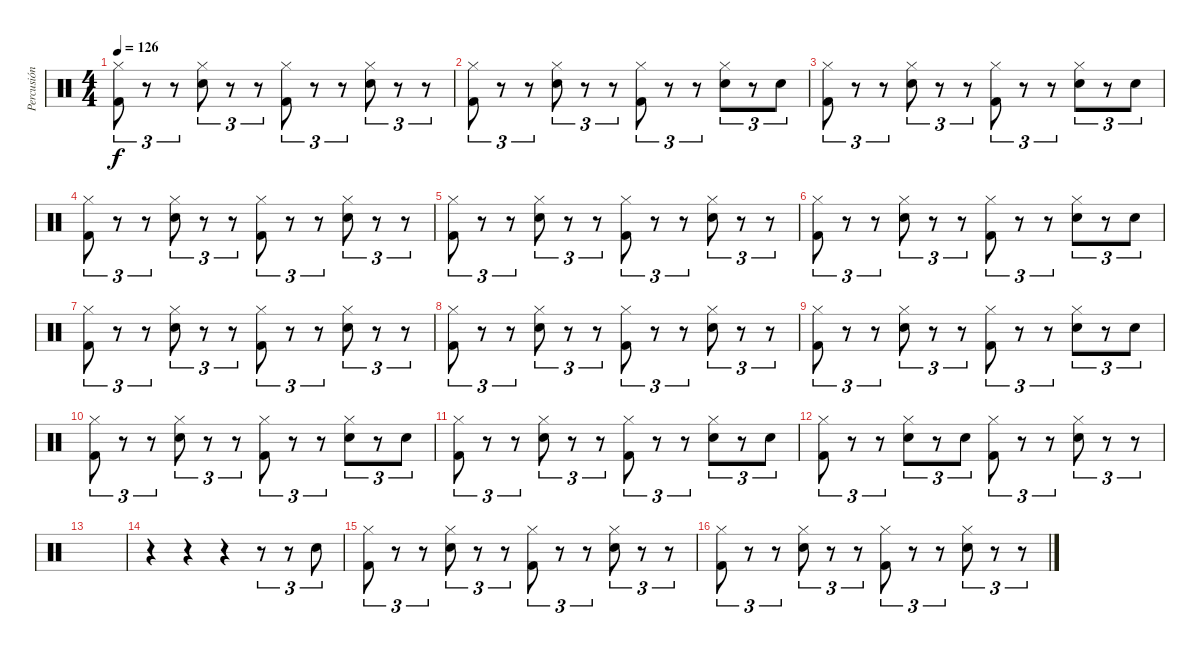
\track ("Percusión" "Percusión") {instrument percussion}
\staff {score}
\articulation defaults
\ts (4 4)
\tempo 126
\clef neutral
\ks c
("Hi-Hat (closed)" "Kick (hit) 2").8{tu (3 2) dy f} r.8{tu (3 2)} r.8{tu (3 2)} ("Hi-Hat (closed)" "Electric Snare (hit)").8{tu (3 2)} r.8{tu (3 2)} r.8{tu (3 2)} ("Hi-Hat (closed)" "Kick (hit) 2").8{tu (3 2)} r.8{tu (3 2)} r.8{tu (3 2)} ("Hi-Hat (closed)" "Electric Snare (hit)").8{tu (3 2)} r.8{tu (3 2)} r.8{tu (3 2)} |
("Hi-Hat (closed)" "Kick (hit) 2").8{tu (3 2)} r.8{tu (3 2)} r.8{tu (3 2)} ("Hi-Hat (closed)" "Electric Snare (hit)").8{tu (3 2)} r.8{tu (3 2)} r.8{tu (3 2)} ("Hi-Hat (closed)" "Kick (hit) 2").8{tu (3 2)} r.8{tu (3 2)} r.8{tu (3 2)} ("Hi-Hat (closed)" "Electric Snare (hit)").8{tu (3 2)} r.8{tu (3 2)} "Electric Snare (hit)".8{tu (3 2)} |
("Hi-Hat (closed)" "Kick (hit) 2").8{tu (3 2)} r.8{tu (3 2)} r.8{tu (3 2)} ("Hi-Hat (closed)" "Electric Snare (hit)").8{tu (3 2)} r.8{tu (3 2)} r.8{tu (3 2)} ("Hi-Hat (closed)" "Kick (hit) 2").8{tu (3 2)} r.8{tu (3 2)} r.8{tu (3 2)} ("Hi-Hat (closed)" "Electric Snare (hit)").8{tu (3 2)} r.8{tu (3 2)} "Electric Snare (hit)".8{tu (3 2)} |
("Hi-Hat (closed)" "Kick (hit) 2").8{tu (3 2)} r.8{tu (3 2)} r.8{tu (3 2)} ("Hi-Hat (closed)" "Electric Snare (hit)").8{tu (3 2)} r.8{tu (3 2)} r.8{tu (3 2)} ("Hi-Hat (closed)" "Kick (hit) 2").8{tu (3 2)} r.8{tu (3 2)} r.8{tu (3 2)} ("Hi-Hat (closed)" "Electric Snare (hit)").8{tu (3 2)} r.8{tu (3 2)} r.8{tu (3 2)} |
("Hi-Hat (closed)" "Kick (hit) 2").8{tu (3 2)} r.8{tu (3 2)} r.8{tu (3 2)} ("Hi-Hat (closed)" "Electric Snare (hit)").8{tu (3 2)} r.8{tu (3 2)} r.8{tu (3 2)} ("Hi-Hat (closed)" "Kick (hit) 2").8{tu (3 2)} r.8{tu (3 2)} r.8{tu (3 2)} ("Hi-Hat (closed)" "Electric Snare (hit)").8{tu (3 2)} r.8{tu (3 2)} r.8{tu (3 2)} |
("Hi-Hat (closed)" "Kick (hit) 2").8{tu (3 2)} r.8{tu (3 2)} r.8{tu (3 2)} ("Hi-Hat (closed)" "Electric Snare (hit)").8{tu (3 2)} r.8{tu (3 2)} r.8{tu (3 2)} ("Hi-Hat (closed)" "Kick (hit) 2").8{tu (3 2)} r.8{tu (3 2)} r.8{tu (3 2)} ("Hi-Hat (closed)" "Electric Snare (hit)").8{tu (3 2)} r.8{tu (3 2)} "Electric Snare (hit)".8{tu (3 2)} |
("Hi-Hat (closed)" "Kick (hit) 2").8{tu (3 2)} r.8{tu (3 2)} r.8{tu (3 2)} ("Hi-Hat (closed)" "Electric Snare (hit)").8{tu (3 2)} r.8{tu (3 2)} r.8{tu (3 2)} ("Hi-Hat (closed)" "Kick (hit) 2").8{tu (3 2)} r.8{tu (3 2)} r.8{tu (3 2)} ("Hi-Hat (closed)" "Electric Snare (hit)").8{tu (3 2)} r.8{tu (3 2)} r.8{tu (3 2)} |
("Hi-Hat (closed)" "Kick (hit) 2").8{tu (3 2)} r.8{tu (3 2)} r.8{tu (3 2)} ("Hi-Hat (closed)" "Electric Snare (hit)").8{tu (3 2)} r.8{tu (3 2)} r.8{tu (3 2)} ("Hi-Hat (closed)" "Kick (hit) 2").8{tu (3 2)} r.8{tu (3 2)} r.8{tu (3 2)} ("Hi-Hat (closed)" "Electric Snare (hit)").8{tu (3 2)} r.8{tu (3 2)} r.8{tu (3 2)} |
("Hi-Hat (closed)" "Kick (hit) 2").8{tu (3 2)} r.8{tu (3 2)} r.8{tu (3 2)} ("Hi-Hat (closed)" "Electric Snare (hit)").8{tu (3 2)} r.8{tu (3 2)} r.8{tu (3 2)} ("Hi-Hat (closed)" "Kick (hit) 2").8{tu (3 2)} r.8{tu (3 2)} r.8{tu (3 2)} ("Hi-Hat (closed)" "Electric Snare (hit)").8{tu (3 2)} r.8{tu (3 2)} "Electric Snare (hit)".8{tu (3 2)} |
("Hi-Hat (closed)" "Kick (hit) 2").8{tu (3 2)} r.8{tu (3 2)} r.8{tu (3 2)} ("Hi-Hat (closed)" "Electric Snare (hit)").8{tu (3 2)} r.8{tu (3 2)} r.8{tu (3 2)} ("Hi-Hat (closed)" "Kick (hit) 2").8{tu (3 2)} r.8{tu (3 2)} r.8{tu (3 2)} ("Hi-Hat (closed)" "Electric Snare (hit)").8{tu (3 2)} r.8{tu (3 2)} "Electric Snare (hit)".8{tu (3 2)} |
("Hi-Hat (closed)" "Kick (hit) 2").8{tu (3 2)} r.8{tu (3 2)} r.8{tu (3 2)} ("Hi-Hat (closed)" "Electric Snare (hit)").8{tu (3 2)} r.8{tu (3 2)} r.8{tu (3 2)} ("Hi-Hat (closed)" "Kick (hit) 2").8{tu (3 2)} r.8{tu (3 2)} r.8{tu (3 2)} ("Hi-Hat (closed)" "Electric Snare (hit)").8{tu (3 2)} r.8{tu (3 2)} "Electric Snare (hit)".8{tu (3 2)} |
("Hi-Hat (closed)" "Kick (hit) 2").8{tu (3 2)} r.8{tu (3 2)} r.8{tu (3 2)} ("Hi-Hat (closed)" "Electric Snare (hit)").8{tu (3 2)} r.8{tu (3 2)} "Electric Snare (hit)".8{tu (3 2)} ("Hi-Hat (closed)" "Kick (hit) 2").8{tu (3 2)} r.8{tu (3 2)} r.8{tu (3 2)} ("Hi-Hat (closed)" "Electric Snare (hit)").8{tu (3 2)} r.8{tu (3 2)} r.8{tu (3 2)} |
|
r.4 r.4 r.4 r.8{tu (3 2)} r.8{tu (3 2)} "Electric Snare (hit)".8{tu (3 2)} |
("Hi-Hat (closed)" "Kick (hit) 2").8{tu (3 2)} r.8{tu (3 2)} r.8{tu (3 2)} ("Hi-Hat (closed)" "Electric Snare (hit)").8{tu (3 2)} r.8{tu (3 2)} r.8{tu (3 2)} ("Hi-Hat (closed)" "Kick (hit) 2").8{tu (3 2)} r.8{tu (3 2)} r.8{tu (3 2)} ("Hi-Hat (closed)" "Electric Snare (hit)").8{tu (3 2)} r.8{tu (3 2)} r.8{tu (3 2)} |
("Hi-Hat (closed)" "Kick (hit) 2").8{tu (3 2)} r.8{tu (3 2)} r.8{tu (3 2)} ("Hi-Hat (closed)" "Electric Snare (hit)").8{tu (3 2)} r.8{tu (3 2)} r.8{tu (3 2)} ("Hi-Hat (closed)" "Kick (hit) 2").8{tu (3 2)} r.8{tu (3 2)} r.8{tu (3 2)} ("Hi-Hat (closed)" "Electric Snare (hit)").8{tu (3 2)} r.8{tu (3 2)} r.8{tu (3 2)}
